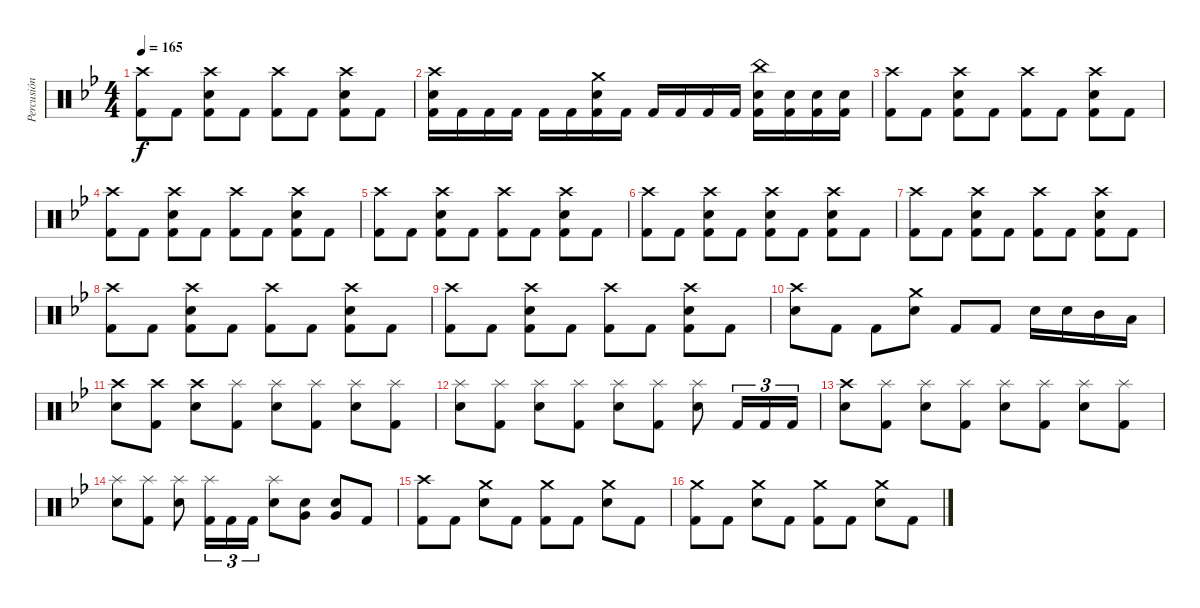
\track ("Percusión" "Percusión") {instrument percussion}
\staff {score}
\articulation defaults
\ts (4 4)
\tempo 165
\clef neutral
\ks bb
("Crash high (hit)" "Kick (hit) 2").8{dy f} "Kick (hit) 2".8 ("Crash high (hit)" "Electric Snare (hit)" "Kick (hit) 2").8 "Kick (hit) 2".8 ("Crash high (hit)" "Kick (hit) 2").8 "Kick (hit) 2".8 ("Crash high (hit)" "Electric Snare (hit)" "Kick (hit) 2").8 "Kick (hit) 2".8 |
("Crash high (hit)" "Electric Snare (hit)" "Kick (hit) 2").16 "Kick (hit) 2".16 "Kick (hit) 2".16 "Kick (hit) 2".16 "Kick (hit) 2".16 "Kick (hit) 2".16 ("Crash medium (hit)" "Electric Snare (hit)" "Kick (hit) 2").16 "Kick (hit) 2".16 "Kick (hit) 2".16 "Kick (hit) 2".16 "Kick (hit) 2".16 "Kick (hit) 2".16 ("China (hit)" "Electric Snare (hit)" "Kick (hit) 2").16 ("Electric Snare (hit)" "Kick (hit) 2").16 ("Electric Snare (hit)" "Kick (hit) 2").16 ("Electric Snare (hit)" "Kick (hit) 2").16 |
("Crash high (hit)" "Kick (hit) 2").8 "Kick (hit) 2".8 ("Crash high (hit)" "Electric Snare (hit)" "Kick (hit) 2").8 "Kick (hit) 2".8 ("Crash high (hit)" "Kick (hit) 2").8 "Kick (hit) 2".8 ("Crash high (hit)" "Electric Snare (hit)" "Kick (hit) 2").8 "Kick (hit) 2".8 |
("Crash high (hit)" "Kick (hit) 2").8 "Kick (hit) 2".8 ("Crash high (hit)" "Electric Snare (hit)" "Kick (hit) 2").8 "Kick (hit) 2".8 ("Crash high (hit)" "Kick (hit) 2").8 "Kick (hit) 2".8 ("Crash high (hit)" "Electric Snare (hit)" "Kick (hit) 2").8 "Kick (hit) 2".8 |
("Crash high (hit)" "Kick (hit) 2").8 "Kick (hit) 2".8 ("Crash high (hit)" "Electric Snare (hit)" "Kick (hit) 2").8 "Kick (hit) 2".8 ("Crash high (hit)" "Kick (hit) 2").8 "Kick (hit) 2".8 ("Crash high (hit)" "Electric Snare (hit)" "Kick (hit) 2").8 "Kick (hit) 2".8 |
("Crash high (hit)" "Kick (hit) 2").8 "Kick (hit) 2".8 ("Crash high (hit)" "Electric Snare (hit)" "Kick (hit) 2").8 "Kick (hit) 2".8 ("Crash high (hit)" "Electric Snare (hit)" "Kick (hit) 2").8 "Kick (hit) 2".8 ("Crash high (hit)" "Electric Snare (hit)" "Kick (hit) 2").8 "Kick (hit) 2".8 |
("Crash high (hit)" "Kick (hit) 2").8 "Kick (hit) 2".8 ("Crash high (hit)" "Electric Snare (hit)" "Kick (hit) 2").8 "Kick (hit) 2".8 ("Crash high (hit)" "Kick (hit) 2").8 "Kick (hit) 2".8 ("Crash high (hit)" "Electric Snare (hit)" "Kick (hit) 2").8 "Kick (hit) 2".8 |
("Crash high (hit)" "Kick (hit) 2").8 "Kick (hit) 2".8 ("Crash high (hit)" "Electric Snare (hit)" "Kick (hit) 2").8 "Kick (hit) 2".8 ("Crash high (hit)" "Kick (hit) 2").8 "Kick (hit) 2".8 ("Crash high (hit)" "Electric Snare (hit)" "Kick (hit) 2").8 "Kick (hit) 2".8 |
("Crash high (hit)" "Kick (hit) 2").8 "Kick (hit) 2".8 ("Crash high (hit)" "Electric Snare (hit)" "Kick (hit) 2").8 "Kick (hit) 2".8 ("Crash high (hit)" "Kick (hit) 2").8 "Kick (hit) 2".8 ("Crash high (hit)" "Electric Snare (hit)" "Kick (hit) 2").8 "Kick (hit) 2".8 |
("Crash high (hit)" "Electric Snare (hit)").8 "Kick (hit) 2".8 "Kick (hit) 2".8 ("Crash medium (hit)" "Electric Snare (hit)").8 "Kick (hit) 2".8 "Kick (hit) 2".8 "Electric Snare (hit)".16 "Electric Snare (hit)".16 "Mid Tom (hit)".16 "Low Tom (hit)".16 |
("Crash high (hit)" "Electric Snare (hit)").8 ("Crash high (hit)" "Kick (hit) 2").8 ("Crash high (hit)" "Electric Snare (hit)").8 ("Splash (hit)" "Kick (hit) 2").8 ("Splash (hit)" "Electric Snare (hit)").8 ("Splash (hit)" "Kick (hit) 2").8 ("Splash (hit)" "Electric Snare (hit)").8 ("Splash (hit)" "Kick (hit) 2").8 |
("Splash (hit)" "Electric Snare (hit)").8 ("Splash (hit)" "Kick (hit) 2").8 ("Splash (hit)" "Electric Snare (hit)").8 ("Splash (hit)" "Kick (hit) 2").8 ("Splash (hit)" "Electric Snare (hit)").8 ("Splash (hit)" "Kick (hit) 2").8 ("Splash (hit)" "Electric Snare (hit)").8 "Kick (hit) 2".16{tu (3 2)} "Kick (hit) 2".16{tu (3 2)} "Kick (hit) 2".16{tu (3 2)} |
("Crash high (hit)" "Electric Snare (hit)").8 ("Splash (hit)" "Kick (hit) 2").8 ("Splash (hit)" "Electric Snare (hit)").8 ("Splash (hit)" "Kick (hit) 2").8 ("Splash (hit)" "Electric Snare (hit)").8 ("Splash (hit)" "Kick (hit) 2").8 ("Splash (hit)" "Electric Snare (hit)").8 ("Splash (hit)" "Kick (hit) 2").8 |
("Splash (hit)" "Electric Snare (hit)").8 ("Splash (hit)" "Kick (hit) 2").8 ("Splash (hit)" "Electric Snare (hit)").8 ("Splash (hit)" "Kick (hit) 2").16{tu (3 2)} "Kick (hit) 2".16{tu (3 2)} "Kick (hit) 2".16{tu (3 2)} ("Splash (hit)" "Electric Snare (hit)").8 ("Electric Snare (hit)" "Very Low Tom (hit)").8 ("Electric Snare (hit)" "Very Low Tom (hit)").8 "Kick (hit) 2".8 |
("Crash high (hit)" "Kick (hit) 2").8 "Kick (hit) 2".8 ("Crash medium (hit)" "Electric Snare (hit)").8 "Kick (hit) 2".8 ("Crash medium (hit)" "Kick (hit) 2").8 "Kick (hit) 2".8 ("Crash medium (hit)" "Electric Snare (hit)").8 "Kick (hit) 2".8 |
("Crash medium (hit)" "Kick (hit) 2").8 "Kick (hit) 2".8 ("Crash medium (hit)" "Electric Snare (hit)").8 "Kick (hit) 2".8 ("Crash medium (hit)" "Kick (hit) 2").8 "Kick (hit) 2".8 ("Crash medium (hit)" "Electric Snare (hit)").8 "Kick (hit) 2".8
